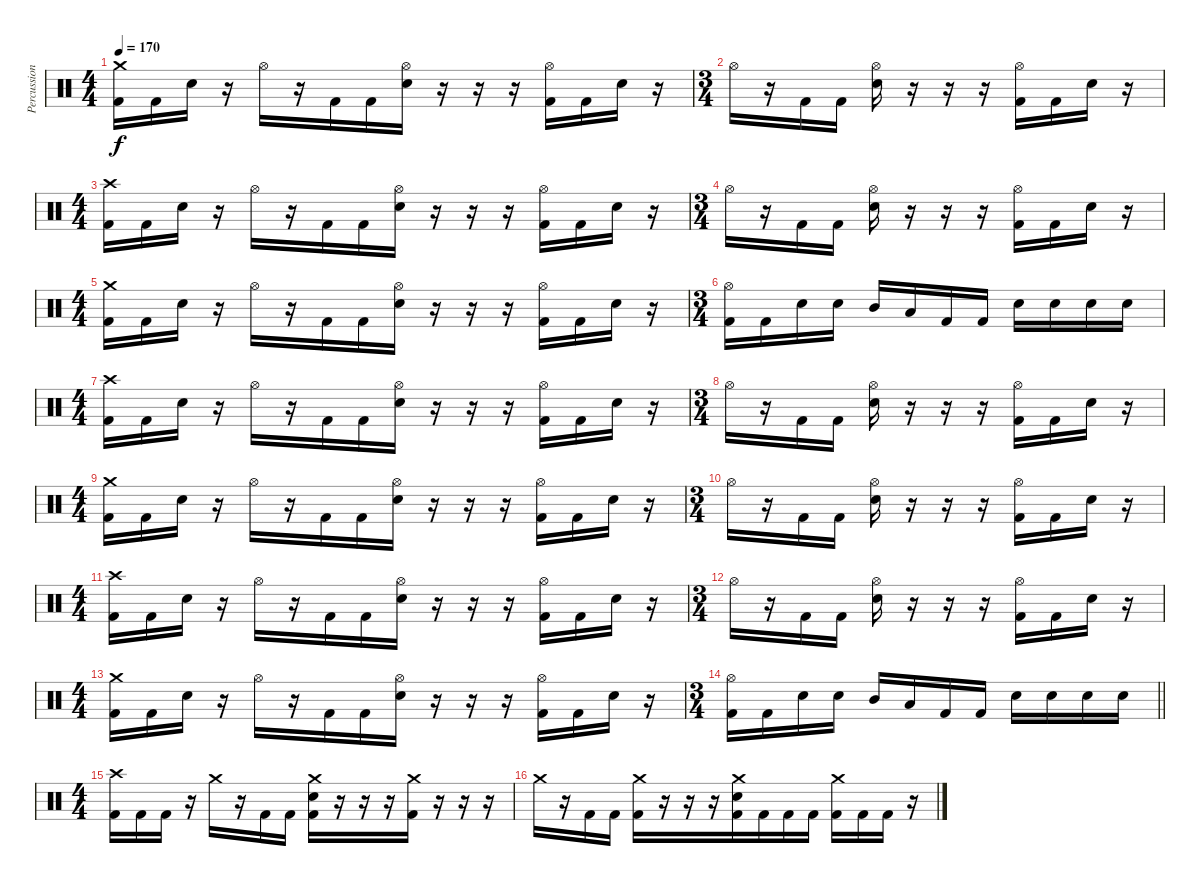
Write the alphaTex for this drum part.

\track ("Percussion" "Percussion") {instrument percussion}
\staff {score}
\articulation defaults
\ts (4 4)
\tempo 170
\clef neutral
\ks c
("Crash medium (hit)" "Kick (hit) 2").16{dy f} "Kick (hit) 2".16 "Electric Snare (hit)".16 r.16 "Hi-Hat (open)".16 r.16 "Kick (hit) 2".16 "Kick (hit) 2".16{beam merge} ("Hi-Hat (open)" "Electric Snare (hit)").16 r.16{beam merge} r.16 r.16{beam merge} ("Hi-Hat (open)" "Kick (hit) 2").16{beam merge} "Kick (hit) 2".16{beam merge} "Electric Snare (hit)".16 r.16 |
\ts (3 4)
"Hi-Hat (open)".16 r.16 "Kick (hit) 2".16 "Kick (hit) 2".16 ("Hi-Hat (open)" "Electric Snare (hit)").16 r.16 r.16 r.16{beam merge} ("Hi-Hat (open)" "Kick (hit) 2").16 "Kick (hit) 2".16 "Electric Snare (hit)".16{beam merge} r.16 |
\ts (4 4)
("Crash high (hit)" "Kick (hit) 2").16 "Kick (hit) 2".16 "Electric Snare (hit)".16 r.16 "Hi-Hat (open)".16 r.16 "Kick (hit) 2".16 "Kick (hit) 2".16{beam merge} ("Hi-Hat (open)" "Electric Snare (hit)").16 r.16{beam merge} r.16 r.16{beam merge} ("Hi-Hat (open)" "Kick (hit) 2").16{beam merge} "Kick (hit) 2".16{beam merge} "Electric Snare (hit)".16 r.16 |
\ts (3 4)
"Hi-Hat (open)".16 r.16 "Kick (hit) 2".16 "Kick (hit) 2".16 ("Hi-Hat (open)" "Electric Snare (hit)").16 r.16 r.16 r.16{beam merge} ("Hi-Hat (open)" "Kick (hit) 2").16 "Kick (hit) 2".16 "Electric Snare (hit)".16{beam merge} r.16 |
\ts (4 4)
("Crash medium (hit)" "Kick (hit) 2").16 "Kick (hit) 2".16 "Electric Snare (hit)".16 r.16 "Hi-Hat (open)".16 r.16 "Kick (hit) 2".16 "Kick (hit) 2".16{beam merge} ("Hi-Hat (open)" "Electric Snare (hit)").16 r.16{beam merge} r.16 r.16{beam merge} ("Hi-Hat (open)" "Kick (hit) 2").16{beam merge} "Kick (hit) 2".16{beam merge} "Electric Snare (hit)".16 r.16 |
\ts (3 4)
("Hi-Hat (open)" "Kick (hit) 2").16 "Kick (hit) 2".16 "Electric Snare (hit)".16 "Electric Snare (hit)".16 "Mid Tom (hit)".16 "Low Tom (hit)".16{beam merge} "Kick (hit) 2".16 "Kick (hit) 2".16 "Electric Snare (hit)".16{beam merge} "Electric Snare (hit)".16 "Electric Snare (hit)".16 "Electric Snare (hit)".16 |
\ts (4 4)
("Crash high (hit)" "Kick (hit) 2").16 "Kick (hit) 2".16 "Electric Snare (hit)".16 r.16 "Hi-Hat (open)".16 r.16 "Kick (hit) 2".16 "Kick (hit) 2".16{beam merge} ("Hi-Hat (open)" "Electric Snare (hit)").16 r.16{beam merge} r.16 r.16{beam merge} ("Hi-Hat (open)" "Kick (hit) 2").16{beam merge} "Kick (hit) 2".16{beam merge} "Electric Snare (hit)".16 r.16 |
\ts (3 4)
"Hi-Hat (open)".16 r.16 "Kick (hit) 2".16 "Kick (hit) 2".16 ("Hi-Hat (open)" "Electric Snare (hit)").16 r.16 r.16 r.16{beam merge} ("Hi-Hat (open)" "Kick (hit) 2").16 "Kick (hit) 2".16 "Electric Snare (hit)".16{beam merge} r.16 |
\ts (4 4)
("Crash medium (hit)" "Kick (hit) 2").16 "Kick (hit) 2".16 "Electric Snare (hit)".16 r.16 "Hi-Hat (open)".16 r.16 "Kick (hit) 2".16 "Kick (hit) 2".16{beam merge} ("Hi-Hat (open)" "Electric Snare (hit)").16 r.16{beam merge} r.16 r.16{beam merge} ("Hi-Hat (open)" "Kick (hit) 2").16{beam merge} "Kick (hit) 2".16{beam merge} "Electric Snare (hit)".16 r.16 |
\ts (3 4)
"Hi-Hat (open)".16 r.16 "Kick (hit) 2".16 "Kick (hit) 2".16 ("Hi-Hat (open)" "Electric Snare (hit)").16 r.16 r.16 r.16{beam merge} ("Hi-Hat (open)" "Kick (hit) 2").16 "Kick (hit) 2".16 "Electric Snare (hit)".16{beam merge} r.16 |
\ts (4 4)
("Crash high (hit)" "Kick (hit) 2").16 "Kick (hit) 2".16 "Electric Snare (hit)".16 r.16 "Hi-Hat (open)".16 r.16 "Kick (hit) 2".16 "Kick (hit) 2".16{beam merge} ("Hi-Hat (open)" "Electric Snare (hit)").16 r.16{beam merge} r.16 r.16{beam merge} ("Hi-Hat (open)" "Kick (hit) 2").16{beam merge} "Kick (hit) 2".16{beam merge} "Electric Snare (hit)".16 r.16 |
\ts (3 4)
"Hi-Hat (open)".16 r.16 "Kick (hit) 2".16 "Kick (hit) 2".16 ("Hi-Hat (open)" "Electric Snare (hit)").16 r.16 r.16 r.16{beam merge} ("Hi-Hat (open)" "Kick (hit) 2").16 "Kick (hit) 2".16 "Electric Snare (hit)".16{beam merge} r.16 |
\ts (4 4)
("Crash medium (hit)" "Kick (hit) 2").16 "Kick (hit) 2".16 "Electric Snare (hit)".16 r.16 "Hi-Hat (open)".16 r.16 "Kick (hit) 2".16 "Kick (hit) 2".16{beam merge} ("Hi-Hat (open)" "Electric Snare (hit)").16 r.16{beam merge} r.16 r.16{beam merge} ("Hi-Hat (open)" "Kick (hit) 2").16{beam merge} "Kick (hit) 2".16{beam merge} "Electric Snare (hit)".16 r.16 |
\ts (3 4)
\barLineRight lightlight
("Hi-Hat (open)" "Kick (hit) 2").16 "Kick (hit) 2".16 "Electric Snare (hit)".16 "Electric Snare (hit)".16 "Mid Tom (hit)".16 "Low Tom (hit)".16{beam merge} "Kick (hit) 2".16 "Kick (hit) 2".16 "Electric Snare (hit)".16{beam merge} "Electric Snare (hit)".16 "Electric Snare (hit)".16 "Electric Snare (hit)".16 |
\ts (4 4)
\section ("" "")
("Crash high (hit)" "Kick (hit) 2").16{beam merge} "Kick (hit) 2".16 "Kick (hit) 2".16 r.16 "Crash medium (hit)".16 r.16 "Kick (hit) 2".16{beam merge} "Kick (hit) 2".16 ("Crash medium (hit)" "Electric Snare (hit)" "Kick (hit) 2").16{beam merge} r.16 r.16 r.16{beam merge} ("Crash medium (hit)" "Kick (hit) 2").16{beam merge} r.16{beam merge} r.16{beam merge} r.16 |
"Crash medium (hit)".16 r.16{beam merge} "Kick (hit) 2".16 "Kick (hit) 2".16 ("Crash medium (hit)" "Kick (hit) 2").16{beam merge} r.16 r.16 r.16 ("Crash medium (hit)" "Electric Snare (hit)" "Kick (hit) 2").16{beam merge} "Kick (hit) 2".16{beam merge} "Kick (hit) 2".16{beam merge} "Kick (hit) 2".16 ("Crash medium (hit)" "Kick (hit) 2").16{beam merge} "Kick (hit) 2".16{beam merge} "Kick (hit) 2".16 r.16
